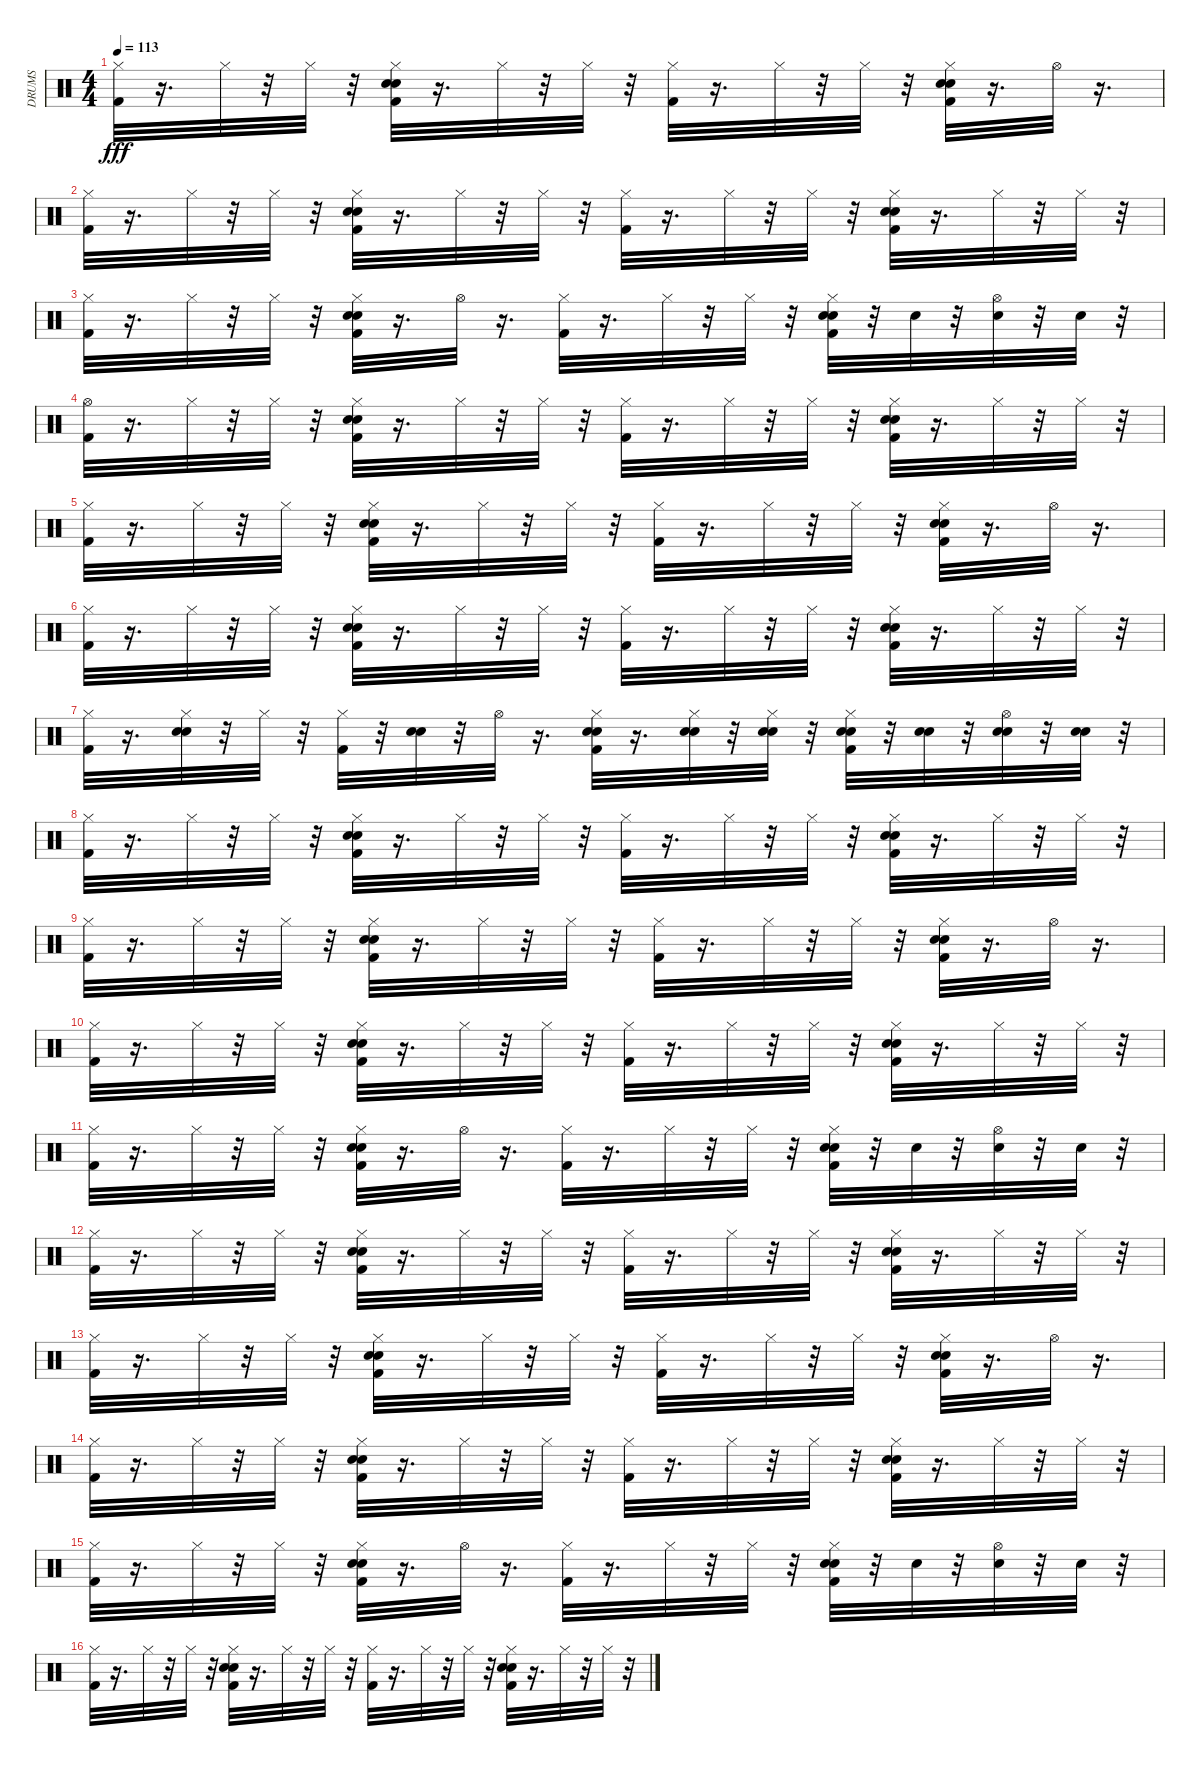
\track ("DRUMS" "DRUMS") {instrument percussion}
\staff {score}
\articulation defaults
\ts (4 4)
\tempo 113
\clef neutral
\ks c
("Hi-Hat (closed)" "Kick (hit) 2").32{dy fff} r.16{d} "Hi-Hat (closed)".32 r.32 "Hi-Hat (closed)".32 r.32 ("Hi-Hat (closed)" "Snare (hit) 2" "Kick (hit) 2" "Hand Clap (hit)").32 r.16{d} "Hi-Hat (closed)".32 r.32 "Hi-Hat (closed)".32 r.32 ("Hi-Hat (closed)" "Kick (hit) 2").32 r.16{d} "Hi-Hat (closed)".32 r.32 "Hi-Hat (closed)".32 r.32 ("Hi-Hat (closed)" "Snare (hit) 2" "Kick (hit) 2" "Hand Clap (hit)").32 r.16{d} "Hi-Hat (open)".32 r.16{d} |
("Hi-Hat (closed)" "Kick (hit) 2").32 r.16{d} "Hi-Hat (closed)".32 r.32 "Hi-Hat (closed)".32 r.32 ("Hi-Hat (closed)" "Snare (hit) 2" "Kick (hit) 2" "Hand Clap (hit)").32 r.16{d} "Hi-Hat (closed)".32 r.32 "Hi-Hat (closed)".32 r.32 ("Hi-Hat (closed)" "Kick (hit) 2").32 r.16{d} "Hi-Hat (closed)".32 r.32 "Hi-Hat (closed)".32 r.32 ("Hi-Hat (closed)" "Snare (hit) 2" "Kick (hit) 2" "Hand Clap (hit)").32 r.16{d} "Hi-Hat (closed)".32 r.32 "Hi-Hat (closed)".32 r.32 |
("Hi-Hat (closed)" "Kick (hit) 2").32 r.16{d} "Hi-Hat (closed)".32 r.32 "Hi-Hat (closed)".32 r.32 ("Hi-Hat (closed)" "Snare (hit) 2" "Kick (hit) 2" "Hand Clap (hit)").32 r.16{d} "Hi-Hat (open)".32 r.16{d} ("Hi-Hat (closed)" "Kick (hit) 2").32 r.16{d} "Hi-Hat (closed)".32 r.32 "Hi-Hat (closed)".32 r.32 ("Hi-Hat (closed)" "Snare (hit) 2" "Kick (hit) 2" "Hand Clap (hit)").32 r.32 "Hand Clap (hit)".32 r.32 ("Hi-Hat (open)" "Hand Clap (hit)").32 r.32 "Hand Clap (hit)".32 r.32 |
("Hi-Hat (open)" "Kick (hit) 2").32 r.16{d} "Hi-Hat (closed)".32 r.32 "Hi-Hat (closed)".32 r.32 ("Electric Snare (hit)" "Hi-Hat (closed)" "Snare (hit) 2" "Kick (hit) 2").32 r.16{d} "Hi-Hat (closed)".32 r.32 "Hi-Hat (closed)".32 r.32 ("Hi-Hat (closed)" "Kick (hit) 2").32 r.16{d} "Hi-Hat (closed)".32 r.32 "Hi-Hat (closed)".32 r.32 ("Electric Snare (hit)" "Hi-Hat (closed)" "Snare (hit) 2" "Kick (hit) 2").32 r.16{d} "Hi-Hat (closed)".32 r.32 "Hi-Hat (closed)".32 r.32 |
("Hi-Hat (closed)" "Kick (hit) 2").32 r.16{d} "Hi-Hat (closed)".32 r.32 "Hi-Hat (closed)".32 r.32 ("Electric Snare (hit)" "Hi-Hat (closed)" "Snare (hit) 2" "Kick (hit) 2").32 r.16{d} "Hi-Hat (closed)".32 r.32 "Hi-Hat (closed)".32 r.32 ("Hi-Hat (closed)" "Kick (hit) 2").32 r.16{d} "Hi-Hat (closed)".32 r.32 "Hi-Hat (closed)".32 r.32 ("Electric Snare (hit)" "Hi-Hat (closed)" "Snare (hit) 2" "Kick (hit) 2").32 r.16{d} "Hi-Hat (open)".32 r.16{d} |
("Hi-Hat (closed)" "Kick (hit) 2").32 r.16{d} "Hi-Hat (closed)".32 r.32 "Hi-Hat (closed)".32 r.32 ("Electric Snare (hit)" "Hi-Hat (closed)" "Snare (hit) 2" "Kick (hit) 2").32 r.16{d} "Hi-Hat (closed)".32 r.32 "Hi-Hat (closed)".32 r.32 ("Hi-Hat (closed)" "Kick (hit) 2").32 r.16{d} "Hi-Hat (closed)".32 r.32 "Hi-Hat (closed)".32 r.32 ("Electric Snare (hit)" "Hi-Hat (closed)" "Snare (hit) 2" "Kick (hit) 2").32 r.16{d} "Hi-Hat (closed)".32 r.32 "Hi-Hat (closed)".32 r.32 |
("Hi-Hat (closed)" "Kick (hit) 2").32 r.16{d} ("Electric Snare (hit)" "Hi-Hat (closed)" "Snare (hit) 2").32 r.32 "Hi-Hat (closed)".32 r.32 ("Hi-Hat (closed)" "Kick (hit) 2").32 r.32 ("Electric Snare (hit)" "Snare (hit) 2").32 r.32 "Hi-Hat (open)".32 r.16{d} ("Electric Snare (hit)" "Hi-Hat (closed)" "Snare (hit) 2" "Kick (hit) 2").32 r.16{d} ("Electric Snare (hit)" "Hi-Hat (closed)" "Snare (hit) 2").32 r.32 ("Electric Snare (hit)" "Hi-Hat (closed)" "Snare (hit) 2").32 r.32 ("Electric Snare (hit)" "Hi-Hat (closed)" "Snare (hit) 2" "Kick (hit) 2").32 r.32 ("Electric Snare (hit)" "Snare (hit) 2").32 r.32 ("Electric Snare (hit)" "Hi-Hat (open)" "Snare (hit) 2").32 r.32 ("Electric Snare (hit)" "Snare (hit) 2").32 r.32 |
("Hi-Hat (closed)" "Kick (hit) 2").32 r.16{d} "Hi-Hat (closed)".32 r.32 "Hi-Hat (closed)".32 r.32 ("Hi-Hat (closed)" "Snare (hit) 2" "Kick (hit) 2" "Hand Clap (hit)").32 r.16{d} "Hi-Hat (closed)".32 r.32 "Hi-Hat (closed)".32 r.32 ("Hi-Hat (closed)" "Kick (hit) 2").32 r.16{d} "Hi-Hat (closed)".32 r.32 "Hi-Hat (closed)".32 r.32 ("Hi-Hat (closed)" "Snare (hit) 2" "Kick (hit) 2" "Hand Clap (hit)").32 r.16{d} "Hi-Hat (closed)".32 r.32 "Hi-Hat (closed)".32 r.32 |
("Hi-Hat (closed)" "Kick (hit) 2").32 r.16{d} "Hi-Hat (closed)".32 r.32 "Hi-Hat (closed)".32 r.32 ("Hi-Hat (closed)" "Snare (hit) 2" "Kick (hit) 2" "Hand Clap (hit)").32 r.16{d} "Hi-Hat (closed)".32 r.32 "Hi-Hat (closed)".32 r.32 ("Hi-Hat (closed)" "Kick (hit) 2").32 r.16{d} "Hi-Hat (closed)".32 r.32 "Hi-Hat (closed)".32 r.32 ("Hi-Hat (closed)" "Snare (hit) 2" "Kick (hit) 2" "Hand Clap (hit)").32 r.16{d} "Hi-Hat (open)".32 r.16{d} |
("Hi-Hat (closed)" "Kick (hit) 2").32 r.16{d} "Hi-Hat (closed)".32 r.32 "Hi-Hat (closed)".32 r.32 ("Hi-Hat (closed)" "Snare (hit) 2" "Kick (hit) 2" "Hand Clap (hit)").32 r.16{d} "Hi-Hat (closed)".32 r.32 "Hi-Hat (closed)".32 r.32 ("Hi-Hat (closed)" "Kick (hit) 2").32 r.16{d} "Hi-Hat (closed)".32 r.32 "Hi-Hat (closed)".32 r.32 ("Hi-Hat (closed)" "Snare (hit) 2" "Kick (hit) 2" "Hand Clap (hit)").32 r.16{d} "Hi-Hat (closed)".32 r.32 "Hi-Hat (closed)".32 r.32 |
("Hi-Hat (closed)" "Kick (hit) 2").32 r.16{d} "Hi-Hat (closed)".32 r.32 "Hi-Hat (closed)".32 r.32 ("Hi-Hat (closed)" "Snare (hit) 2" "Kick (hit) 2" "Hand Clap (hit)").32 r.16{d} "Hi-Hat (open)".32 r.16{d} ("Hi-Hat (closed)" "Kick (hit) 2").32 r.16{d} "Hi-Hat (closed)".32 r.32 "Hi-Hat (closed)".32 r.32 ("Hi-Hat (closed)" "Snare (hit) 2" "Kick (hit) 2" "Hand Clap (hit)").32 r.32 "Hand Clap (hit)".32 r.32 ("Hi-Hat (open)" "Hand Clap (hit)").32 r.32 "Hand Clap (hit)".32 r.32 |
("Hi-Hat (closed)" "Kick (hit) 2").32 r.16{d} "Hi-Hat (closed)".32 r.32 "Hi-Hat (closed)".32 r.32 ("Hi-Hat (closed)" "Snare (hit) 2" "Kick (hit) 2" "Hand Clap (hit)").32 r.16{d} "Hi-Hat (closed)".32 r.32 "Hi-Hat (closed)".32 r.32 ("Hi-Hat (closed)" "Kick (hit) 2").32 r.16{d} "Hi-Hat (closed)".32 r.32 "Hi-Hat (closed)".32 r.32 ("Hi-Hat (closed)" "Snare (hit) 2" "Kick (hit) 2" "Hand Clap (hit)").32 r.16{d} "Hi-Hat (closed)".32 r.32 "Hi-Hat (closed)".32 r.32 |
("Hi-Hat (closed)" "Kick (hit) 2").32 r.16{d} "Hi-Hat (closed)".32 r.32 "Hi-Hat (closed)".32 r.32 ("Hi-Hat (closed)" "Snare (hit) 2" "Kick (hit) 2" "Hand Clap (hit)").32 r.16{d} "Hi-Hat (closed)".32 r.32 "Hi-Hat (closed)".32 r.32 ("Hi-Hat (closed)" "Kick (hit) 2").32 r.16{d} "Hi-Hat (closed)".32 r.32 "Hi-Hat (closed)".32 r.32 ("Hi-Hat (closed)" "Snare (hit) 2" "Kick (hit) 2" "Hand Clap (hit)").32 r.16{d} "Hi-Hat (open)".32 r.16{d} |
("Hi-Hat (closed)" "Kick (hit) 2").32 r.16{d} "Hi-Hat (closed)".32 r.32 "Hi-Hat (closed)".32 r.32 ("Hi-Hat (closed)" "Snare (hit) 2" "Kick (hit) 2" "Hand Clap (hit)").32 r.16{d} "Hi-Hat (closed)".32 r.32 "Hi-Hat (closed)".32 r.32 ("Hi-Hat (closed)" "Kick (hit) 2").32 r.16{d} "Hi-Hat (closed)".32 r.32 "Hi-Hat (closed)".32 r.32 ("Hi-Hat (closed)" "Snare (hit) 2" "Kick (hit) 2" "Hand Clap (hit)").32 r.16{d} "Hi-Hat (closed)".32 r.32 "Hi-Hat (closed)".32 r.32 |
("Hi-Hat (closed)" "Kick (hit) 2").32 r.16{d} "Hi-Hat (closed)".32 r.32 "Hi-Hat (closed)".32 r.32 ("Hi-Hat (closed)" "Snare (hit) 2" "Kick (hit) 2" "Hand Clap (hit)").32 r.16{d} "Hi-Hat (open)".32 r.16{d} ("Hi-Hat (closed)" "Kick (hit) 2").32 r.16{d} "Hi-Hat (closed)".32 r.32 "Hi-Hat (closed)".32 r.32 ("Hi-Hat (closed)" "Snare (hit) 2" "Kick (hit) 2" "Hand Clap (hit)").32 r.32 "Hand Clap (hit)".32 r.32 ("Hi-Hat (open)" "Hand Clap (hit)").32 r.32 "Hand Clap (hit)".32 r.32 |
("Hi-Hat (closed)" "Kick (hit) 2").32 r.16{d} "Hi-Hat (closed)".32 r.32 "Hi-Hat (closed)".32 r.32 ("Hi-Hat (closed)" "Snare (hit) 2" "Kick (hit) 2" "Hand Clap (hit)").32 r.16{d} "Hi-Hat (closed)".32 r.32 "Hi-Hat (closed)".32 r.32 ("Hi-Hat (closed)" "Kick (hit) 2").32 r.16{d} "Hi-Hat (closed)".32 r.32 "Hi-Hat (closed)".32 r.32 ("Hi-Hat (closed)" "Snare (hit) 2" "Kick (hit) 2" "Hand Clap (hit)").32 r.16{d} "Hi-Hat (closed)".32 r.32 "Hi-Hat (closed)".32 r.32
